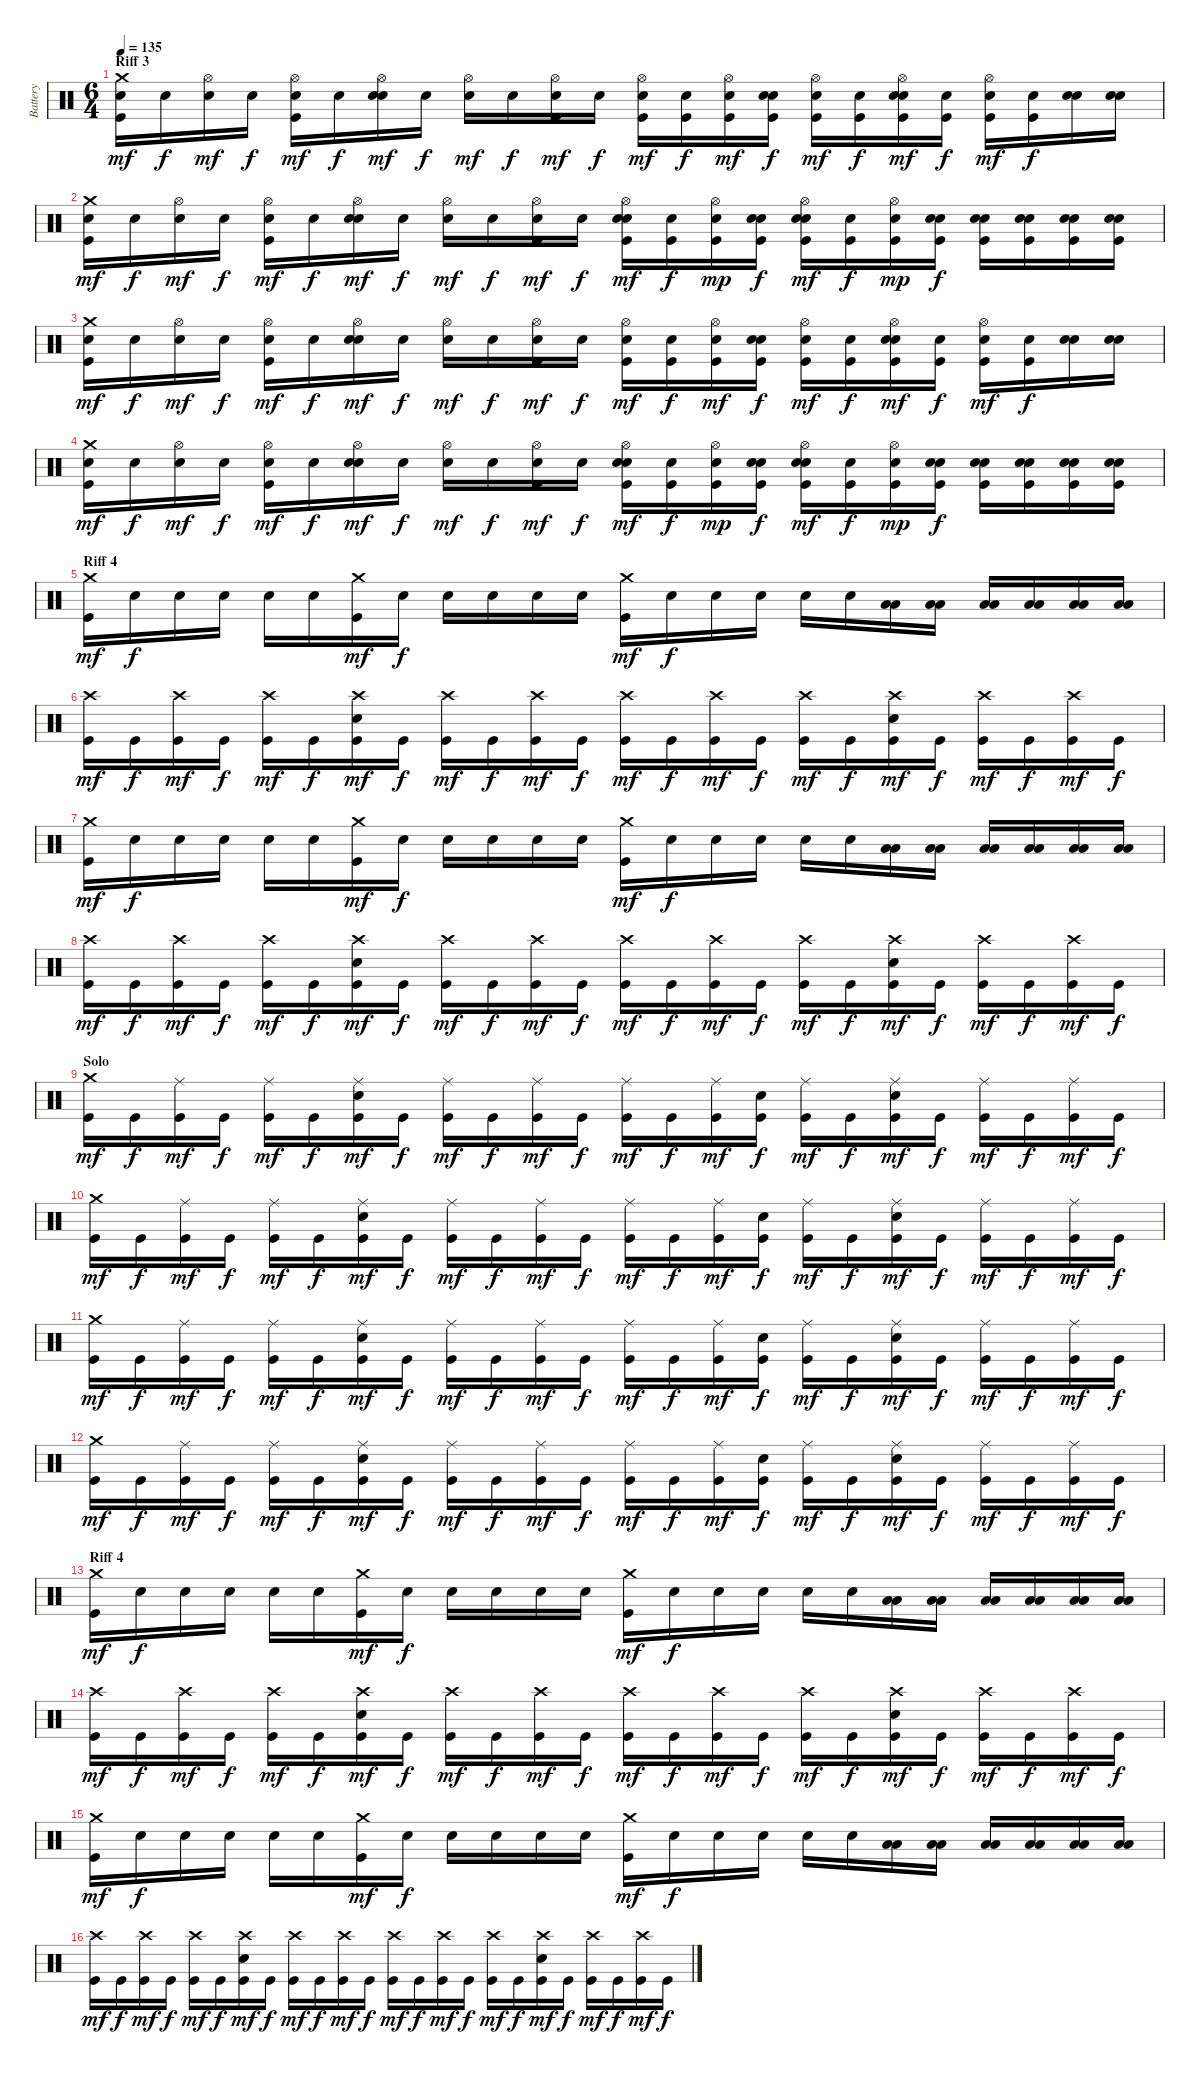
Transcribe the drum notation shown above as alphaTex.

\track ("Battery" "Battery") {instrument percussion}
\staff {score}
\articulation defaults
\ts (6 4)
\section ("" "Riff 3")
\tempo 135
\clef neutral
\ks c
("Snare (hit)"{x} "Crash medium (hit)" "Kick (hit)").16{dy mf} "Snare (hit)"{x}.16{dy f} ("Snare (hit)"{x} "Hi-Hat (open)").16{dy mf} "Snare (hit)"{x}.16{dy f} ("Snare (hit)"{x} "Hi-Hat (open)" "Kick (hit)").16{dy mf} "Snare (hit)"{x}.16{dy f} ("Snare (hit)"{x} "Hi-Hat (open)" "Electric Snare (hit)").16{dy mf} "Snare (hit)"{x}.16{dy f} ("Snare (hit)"{x} "Hi-Hat (open)").16{dy mf} "Snare (hit)"{x}.16{dy f} ("Snare (hit)"{x} "Hi-Hat (open)" "Kick (hit)").16{dy mf} "Snare (hit)"{x}.16{dy f} ("Snare (hit)"{x} "Hi-Hat (open)" "Kick (hit)").16{dy mf} ("Snare (hit)"{x} "Kick (hit)").16{dy f} ("Snare (hit)"{x} "Hi-Hat (open)" "Kick (hit)").16{dy mf} ("Snare (hit)"{x} "Electric Snare (hit)" "Kick (hit)").16{dy f} ("Snare (hit)"{x} "Hi-Hat (open)" "Kick (hit)").16{dy mf} ("Snare (hit)"{x} "Kick (hit)").16{dy f} ("Snare (hit)"{x} "Hi-Hat (open)" "Electric Snare (hit)" "Kick (hit)").16{dy mf} ("Snare (hit)"{x} "Kick (hit)").16{dy f} ("Snare (hit)"{x} "Hi-Hat (open)" "Kick (hit)").16{dy mf} ("Snare (hit)"{x} "Kick (hit)").16{dy f} ("Snare (hit)"{x} "Electric Snare (hit)").16 ("Snare (hit)"{x} "Electric Snare (hit)").16 |
("Snare (hit)"{x} "Crash medium (hit)" "Kick (hit)").16{dy mf} "Snare (hit)"{x}.16{dy f} ("Snare (hit)"{x} "Hi-Hat (open)").16{dy mf} "Snare (hit)"{x}.16{dy f} ("Snare (hit)"{x} "Hi-Hat (open)" "Kick (hit)").16{dy mf} "Snare (hit)"{x}.16{dy f} ("Snare (hit)"{x} "Hi-Hat (open)" "Electric Snare (hit)").16{dy mf} "Snare (hit)"{x}.16{dy f} ("Snare (hit)"{x} "Hi-Hat (open)").16{dy mf} "Snare (hit)"{x}.16{dy f} ("Snare (hit)"{x} "Hi-Hat (open)" "Kick (hit)").16{dy mf} "Snare (hit)"{x}.16{dy f} ("Snare (hit)"{x} "Hi-Hat (open)" "Electric Snare (hit)" "Kick (hit)").16{dy mf} ("Snare (hit)"{x} "Kick (hit)").16{dy f} ("Snare (hit)"{x} "Hi-Hat (open)" "Kick (hit)").16{dy mp} ("Snare (hit)"{x} "Electric Snare (hit)" "Kick (hit)").16{dy f} ("Snare (hit)"{x} "Hi-Hat (open)" "Electric Snare (hit)" "Kick (hit)").16{dy mf} ("Snare (hit)"{x} "Kick (hit)").16{dy f} ("Snare (hit)"{x} "Hi-Hat (open)" "Kick (hit)").16{dy mp} ("Snare (hit)"{x} "Electric Snare (hit)" "Kick (hit)").16{dy f} ("Snare (hit)"{x} "Electric Snare (hit)" "Kick (hit)").16 ("Snare (hit)"{x} "Electric Snare (hit)" "Kick (hit)").16 ("Snare (hit)"{x} "Electric Snare (hit)" "Kick (hit)").16 ("Snare (hit)"{x} "Electric Snare (hit)" "Kick (hit)").16 |
("Snare (hit)"{x} "Crash medium (hit)" "Kick (hit)").16{dy mf} "Snare (hit)"{x}.16{dy f} ("Snare (hit)"{x} "Hi-Hat (open)").16{dy mf} "Snare (hit)"{x}.16{dy f} ("Snare (hit)"{x} "Hi-Hat (open)" "Kick (hit)").16{dy mf} "Snare (hit)"{x}.16{dy f} ("Snare (hit)"{x} "Hi-Hat (open)" "Electric Snare (hit)").16{dy mf} "Snare (hit)"{x}.16{dy f} ("Snare (hit)"{x} "Hi-Hat (open)").16{dy mf} "Snare (hit)"{x}.16{dy f} ("Snare (hit)"{x} "Hi-Hat (open)" "Kick (hit)").16{dy mf} "Snare (hit)"{x}.16{dy f} ("Snare (hit)"{x} "Hi-Hat (open)" "Kick (hit)").16{dy mf} ("Snare (hit)"{x} "Kick (hit)").16{dy f} ("Snare (hit)"{x} "Hi-Hat (open)" "Kick (hit)").16{dy mf} ("Snare (hit)"{x} "Electric Snare (hit)" "Kick (hit)").16{dy f} ("Snare (hit)"{x} "Hi-Hat (open)" "Kick (hit)").16{dy mf} ("Snare (hit)"{x} "Kick (hit)").16{dy f} ("Snare (hit)"{x} "Hi-Hat (open)" "Electric Snare (hit)" "Kick (hit)").16{dy mf} ("Snare (hit)"{x} "Kick (hit)").16{dy f} ("Snare (hit)"{x} "Hi-Hat (open)" "Kick (hit)").16{dy mf} ("Snare (hit)"{x} "Kick (hit)").16{dy f} ("Snare (hit)"{x} "Electric Snare (hit)").16 ("Snare (hit)"{x} "Electric Snare (hit)").16 |
("Snare (hit)"{x} "Crash medium (hit)" "Kick (hit)").16{dy mf} "Snare (hit)"{x}.16{dy f} ("Snare (hit)"{x} "Hi-Hat (open)").16{dy mf} "Snare (hit)"{x}.16{dy f} ("Snare (hit)"{x} "Hi-Hat (open)" "Kick (hit)").16{dy mf} "Snare (hit)"{x}.16{dy f} ("Snare (hit)"{x} "Hi-Hat (open)" "Electric Snare (hit)").16{dy mf} "Snare (hit)"{x}.16{dy f} ("Snare (hit)"{x} "Hi-Hat (open)").16{dy mf} "Snare (hit)"{x}.16{dy f} ("Snare (hit)"{x} "Hi-Hat (open)" "Kick (hit)").16{dy mf} "Snare (hit)"{x}.16{dy f} ("Snare (hit)"{x} "Hi-Hat (open)" "Electric Snare (hit)" "Kick (hit)").16{dy mf} ("Snare (hit)"{x} "Kick (hit)").16{dy f} ("Snare (hit)"{x} "Hi-Hat (open)" "Kick (hit)").16{dy mp} ("Snare (hit)"{x} "Electric Snare (hit)" "Kick (hit)").16{dy f} ("Snare (hit)"{x} "Hi-Hat (open)" "Electric Snare (hit)" "Kick (hit)").16{dy mf} ("Snare (hit)"{x} "Kick (hit)").16{dy f} ("Snare (hit)"{x} "Hi-Hat (open)" "Kick (hit)").16{dy mp} ("Snare (hit)"{x} "Electric Snare (hit)" "Kick (hit)").16{dy f} ("Snare (hit)"{x} "Electric Snare (hit)" "Kick (hit)").16 ("Snare (hit)"{x} "Electric Snare (hit)" "Kick (hit)").16 ("Snare (hit)"{x} "Electric Snare (hit)" "Kick (hit)").16 ("Snare (hit)"{x} "Electric Snare (hit)" "Kick (hit)").16 |
\section ("" "Riff 4")
("Crash medium (hit)" "Kick (hit)").16{dy mf} "Electric Snare (hit)".16{dy f} "Electric Snare (hit)".16 "Electric Snare (hit)".16 "Electric Snare (hit)".16 "Electric Snare (hit)".16 ("Crash medium (hit)" "Kick (hit)").16{dy mf} "Electric Snare (hit)".16{dy f} "Electric Snare (hit)".16 "Electric Snare (hit)".16 "Electric Snare (hit)".16 "Electric Snare (hit)".16 ("Crash medium (hit)" "Kick (hit)").16{dy mf} "Electric Snare (hit)".16{dy f} "Electric Snare (hit)".16 "Electric Snare (hit)".16 "Electric Snare (hit)".16 "Electric Snare (hit)".16 ("Low Tom (hit)" "Low Tom (hit)").16 ("Low Tom (hit)" "Low Tom (hit)").16 ("Low Tom (hit)" "Low Tom (hit)").16 ("Low Tom (hit)" "Low Tom (hit)").16 ("Low Tom (hit)" "Low Tom (hit)").16 ("Low Tom (hit)" "Low Tom (hit)").16 |
("Crash high (hit)" "Kick (hit)").16{dy mf} "Kick (hit)".16{dy f} ("Crash high (hit)" "Kick (hit)").16{dy mf} "Kick (hit)".16{dy f} ("Crash high (hit)" "Kick (hit)").16{dy mf} "Kick (hit)".16{dy f} ("Crash high (hit)" "Electric Snare (hit)" "Kick (hit)").16{dy mf} "Kick (hit)".16{dy f} ("Crash high (hit)" "Kick (hit)").16{dy mf} "Kick (hit)".16{dy f} ("Crash high (hit)" "Kick (hit)").16{dy mf} "Kick (hit)".16{dy f} ("Crash high (hit)" "Kick (hit)").16{dy mf} "Kick (hit)".16{dy f} ("Crash high (hit)" "Kick (hit)").16{dy mf} "Kick (hit)".16{dy f} ("Crash high (hit)" "Kick (hit)").16{dy mf} "Kick (hit)".16{dy f} ("Crash high (hit)" "Electric Snare (hit)" "Kick (hit)").16{dy mf} "Kick (hit)".16{dy f} ("Crash high (hit)" "Kick (hit)").16{dy mf} "Kick (hit)".16{dy f} ("Crash high (hit)" "Kick (hit)").16{dy mf} "Kick (hit)".16{dy f} |
("Crash medium (hit)" "Kick (hit)").16{dy mf} "Electric Snare (hit)".16{dy f} "Electric Snare (hit)".16 "Electric Snare (hit)".16 "Electric Snare (hit)".16 "Electric Snare (hit)".16 ("Crash medium (hit)" "Kick (hit)").16{dy mf} "Electric Snare (hit)".16{dy f} "Electric Snare (hit)".16 "Electric Snare (hit)".16 "Electric Snare (hit)".16 "Electric Snare (hit)".16 ("Crash medium (hit)" "Kick (hit)").16{dy mf} "Electric Snare (hit)".16{dy f} "Electric Snare (hit)".16 "Electric Snare (hit)".16 "Electric Snare (hit)".16 "Electric Snare (hit)".16 ("Low Tom (hit)" "Low Tom (hit)").16 ("Low Tom (hit)" "Low Tom (hit)").16 ("Low Tom (hit)" "Low Tom (hit)").16 ("Low Tom (hit)" "Low Tom (hit)").16 ("Low Tom (hit)" "Low Tom (hit)").16 ("Low Tom (hit)" "Low Tom (hit)").16 |
("Crash high (hit)" "Kick (hit)").16{dy mf} "Kick (hit)".16{dy f} ("Crash high (hit)" "Kick (hit)").16{dy mf} "Kick (hit)".16{dy f} ("Crash high (hit)" "Kick (hit)").16{dy mf} "Kick (hit)".16{dy f} ("Crash high (hit)" "Electric Snare (hit)" "Kick (hit)").16{dy mf} "Kick (hit)".16{dy f} ("Crash high (hit)" "Kick (hit)").16{dy mf} "Kick (hit)".16{dy f} ("Crash high (hit)" "Kick (hit)").16{dy mf} "Kick (hit)".16{dy f} ("Crash high (hit)" "Kick (hit)").16{dy mf} "Kick (hit)".16{dy f} ("Crash high (hit)" "Kick (hit)").16{dy mf} "Kick (hit)".16{dy f} ("Crash high (hit)" "Kick (hit)").16{dy mf} "Kick (hit)".16{dy f} ("Crash high (hit)" "Electric Snare (hit)" "Kick (hit)").16{dy mf} "Kick (hit)".16{dy f} ("Crash high (hit)" "Kick (hit)").16{dy mf} "Kick (hit)".16{dy f} ("Crash high (hit)" "Kick (hit)").16{dy mf} "Kick (hit)".16{dy f} |
\section ("" "Solo")
("Crash medium (hit)" "Kick (hit)").16{dy mf} "Kick (hit)".16{dy f} ("Ride (middle)" "Kick (hit)").16{dy mf} "Kick (hit)".16{dy f} ("Ride (middle)" "Kick (hit)").16{dy mf} "Kick (hit)".16{dy f} ("Ride (middle)" "Electric Snare (hit)" "Kick (hit)").16{dy mf} "Kick (hit)".16{dy f} ("Ride (middle)" "Kick (hit)").16{dy mf} "Kick (hit)".16{dy f} ("Ride (middle)" "Kick (hit)").16{dy mf} "Kick (hit)".16{dy f} ("Ride (middle)" "Kick (hit)").16{dy mf} "Kick (hit)".16{dy f} ("Ride (middle)" "Kick (hit)").16{dy mf} ("Electric Snare (hit)" "Kick (hit)").16{dy f} ("Ride (middle)" "Kick (hit)").16{dy mf} "Kick (hit)".16{dy f} ("Ride (middle)" "Electric Snare (hit)" "Kick (hit)").16{dy mf} "Kick (hit)".16{dy f} ("Ride (middle)" "Kick (hit)").16{dy mf} "Kick (hit)".16{dy f} ("Ride (middle)" "Kick (hit)").16{dy mf} "Kick (hit)".16{dy f} |
("Crash medium (hit)" "Kick (hit)").16{dy mf} "Kick (hit)".16{dy f} ("Ride (middle)" "Kick (hit)").16{dy mf} "Kick (hit)".16{dy f} ("Ride (middle)" "Kick (hit)").16{dy mf} "Kick (hit)".16{dy f} ("Ride (middle)" "Electric Snare (hit)" "Kick (hit)").16{dy mf} "Kick (hit)".16{dy f} ("Ride (middle)" "Kick (hit)").16{dy mf} "Kick (hit)".16{dy f} ("Ride (middle)" "Kick (hit)").16{dy mf} "Kick (hit)".16{dy f} ("Ride (middle)" "Kick (hit)").16{dy mf} "Kick (hit)".16{dy f} ("Ride (middle)" "Kick (hit)").16{dy mf} ("Electric Snare (hit)" "Kick (hit)").16{dy f} ("Ride (middle)" "Kick (hit)").16{dy mf} "Kick (hit)".16{dy f} ("Ride (middle)" "Electric Snare (hit)" "Kick (hit)").16{dy mf} "Kick (hit)".16{dy f} ("Ride (middle)" "Kick (hit)").16{dy mf} "Kick (hit)".16{dy f} ("Ride (middle)" "Kick (hit)").16{dy mf} "Kick (hit)".16{dy f} |
("Crash medium (hit)" "Kick (hit)").16{dy mf} "Kick (hit)".16{dy f} ("Ride (middle)" "Kick (hit)").16{dy mf} "Kick (hit)".16{dy f} ("Ride (middle)" "Kick (hit)").16{dy mf} "Kick (hit)".16{dy f} ("Ride (middle)" "Electric Snare (hit)" "Kick (hit)").16{dy mf} "Kick (hit)".16{dy f} ("Ride (middle)" "Kick (hit)").16{dy mf} "Kick (hit)".16{dy f} ("Ride (middle)" "Kick (hit)").16{dy mf} "Kick (hit)".16{dy f} ("Ride (middle)" "Kick (hit)").16{dy mf} "Kick (hit)".16{dy f} ("Ride (middle)" "Kick (hit)").16{dy mf} ("Electric Snare (hit)" "Kick (hit)").16{dy f} ("Ride (middle)" "Kick (hit)").16{dy mf} "Kick (hit)".16{dy f} ("Ride (middle)" "Electric Snare (hit)" "Kick (hit)").16{dy mf} "Kick (hit)".16{dy f} ("Ride (middle)" "Kick (hit)").16{dy mf} "Kick (hit)".16{dy f} ("Ride (middle)" "Kick (hit)").16{dy mf} "Kick (hit)".16{dy f} |
("Crash medium (hit)" "Kick (hit)").16{dy mf} "Kick (hit)".16{dy f} ("Ride (middle)" "Kick (hit)").16{dy mf} "Kick (hit)".16{dy f} ("Ride (middle)" "Kick (hit)").16{dy mf} "Kick (hit)".16{dy f} ("Ride (middle)" "Electric Snare (hit)" "Kick (hit)").16{dy mf} "Kick (hit)".16{dy f} ("Ride (middle)" "Kick (hit)").16{dy mf} "Kick (hit)".16{dy f} ("Ride (middle)" "Kick (hit)").16{dy mf} "Kick (hit)".16{dy f} ("Ride (middle)" "Kick (hit)").16{dy mf} "Kick (hit)".16{dy f} ("Ride (middle)" "Kick (hit)").16{dy mf} ("Electric Snare (hit)" "Kick (hit)").16{dy f} ("Ride (middle)" "Kick (hit)").16{dy mf} "Kick (hit)".16{dy f} ("Ride (middle)" "Electric Snare (hit)" "Kick (hit)").16{dy mf} "Kick (hit)".16{dy f} ("Ride (middle)" "Kick (hit)").16{dy mf} "Kick (hit)".16{dy f} ("Ride (middle)" "Kick (hit)").16{dy mf} "Kick (hit)".16{dy f} |
\section ("" "Riff 4")
("Crash medium (hit)" "Kick (hit)").16{dy mf} "Electric Snare (hit)".16{dy f} "Electric Snare (hit)".16 "Electric Snare (hit)".16 "Electric Snare (hit)".16 "Electric Snare (hit)".16 ("Crash medium (hit)" "Kick (hit)").16{dy mf} "Electric Snare (hit)".16{dy f} "Electric Snare (hit)".16 "Electric Snare (hit)".16 "Electric Snare (hit)".16 "Electric Snare (hit)".16 ("Crash medium (hit)" "Kick (hit)").16{dy mf} "Electric Snare (hit)".16{dy f} "Electric Snare (hit)".16 "Electric Snare (hit)".16 "Electric Snare (hit)".16 "Electric Snare (hit)".16 ("Low Tom (hit)" "Low Tom (hit)").16 ("Low Tom (hit)" "Low Tom (hit)").16 ("Low Tom (hit)" "Low Tom (hit)").16 ("Low Tom (hit)" "Low Tom (hit)").16 ("Low Tom (hit)" "Low Tom (hit)").16 ("Low Tom (hit)" "Low Tom (hit)").16 |
("Crash high (hit)" "Kick (hit)").16{dy mf} "Kick (hit)".16{dy f} ("Crash high (hit)" "Kick (hit)").16{dy mf} "Kick (hit)".16{dy f} ("Crash high (hit)" "Kick (hit)").16{dy mf} "Kick (hit)".16{dy f} ("Crash high (hit)" "Electric Snare (hit)" "Kick (hit)").16{dy mf} "Kick (hit)".16{dy f} ("Crash high (hit)" "Kick (hit)").16{dy mf} "Kick (hit)".16{dy f} ("Crash high (hit)" "Kick (hit)").16{dy mf} "Kick (hit)".16{dy f} ("Crash high (hit)" "Kick (hit)").16{dy mf} "Kick (hit)".16{dy f} ("Crash high (hit)" "Kick (hit)").16{dy mf} "Kick (hit)".16{dy f} ("Crash high (hit)" "Kick (hit)").16{dy mf} "Kick (hit)".16{dy f} ("Crash high (hit)" "Electric Snare (hit)" "Kick (hit)").16{dy mf} "Kick (hit)".16{dy f} ("Crash high (hit)" "Kick (hit)").16{dy mf} "Kick (hit)".16{dy f} ("Crash high (hit)" "Kick (hit)").16{dy mf} "Kick (hit)".16{dy f} |
("Crash medium (hit)" "Kick (hit)").16{dy mf} "Electric Snare (hit)".16{dy f} "Electric Snare (hit)".16 "Electric Snare (hit)".16 "Electric Snare (hit)".16 "Electric Snare (hit)".16 ("Crash medium (hit)" "Kick (hit)").16{dy mf} "Electric Snare (hit)".16{dy f} "Electric Snare (hit)".16 "Electric Snare (hit)".16 "Electric Snare (hit)".16 "Electric Snare (hit)".16 ("Crash medium (hit)" "Kick (hit)").16{dy mf} "Electric Snare (hit)".16{dy f} "Electric Snare (hit)".16 "Electric Snare (hit)".16 "Electric Snare (hit)".16 "Electric Snare (hit)".16 ("Low Tom (hit)" "Low Tom (hit)").16 ("Low Tom (hit)" "Low Tom (hit)").16 ("Low Tom (hit)" "Low Tom (hit)").16 ("Low Tom (hit)" "Low Tom (hit)").16 ("Low Tom (hit)" "Low Tom (hit)").16 ("Low Tom (hit)" "Low Tom (hit)").16 |
("Crash high (hit)" "Kick (hit)").16{dy mf} "Kick (hit)".16{dy f} ("Crash high (hit)" "Kick (hit)").16{dy mf} "Kick (hit)".16{dy f} ("Crash high (hit)" "Kick (hit)").16{dy mf} "Kick (hit)".16{dy f} ("Crash high (hit)" "Electric Snare (hit)" "Kick (hit)").16{dy mf} "Kick (hit)".16{dy f} ("Crash high (hit)" "Kick (hit)").16{dy mf} "Kick (hit)".16{dy f} ("Crash high (hit)" "Kick (hit)").16{dy mf} "Kick (hit)".16{dy f} ("Crash high (hit)" "Kick (hit)").16{dy mf} "Kick (hit)".16{dy f} ("Crash high (hit)" "Kick (hit)").16{dy mf} "Kick (hit)".16{dy f} ("Crash high (hit)" "Kick (hit)").16{dy mf} "Kick (hit)".16{dy f} ("Crash high (hit)" "Electric Snare (hit)" "Kick (hit)").16{dy mf} "Kick (hit)".16{dy f} ("Crash high (hit)" "Kick (hit)").16{dy mf} "Kick (hit)".16{dy f} ("Crash high (hit)" "Kick (hit)").16{dy mf} "Kick (hit)".16{dy f}
